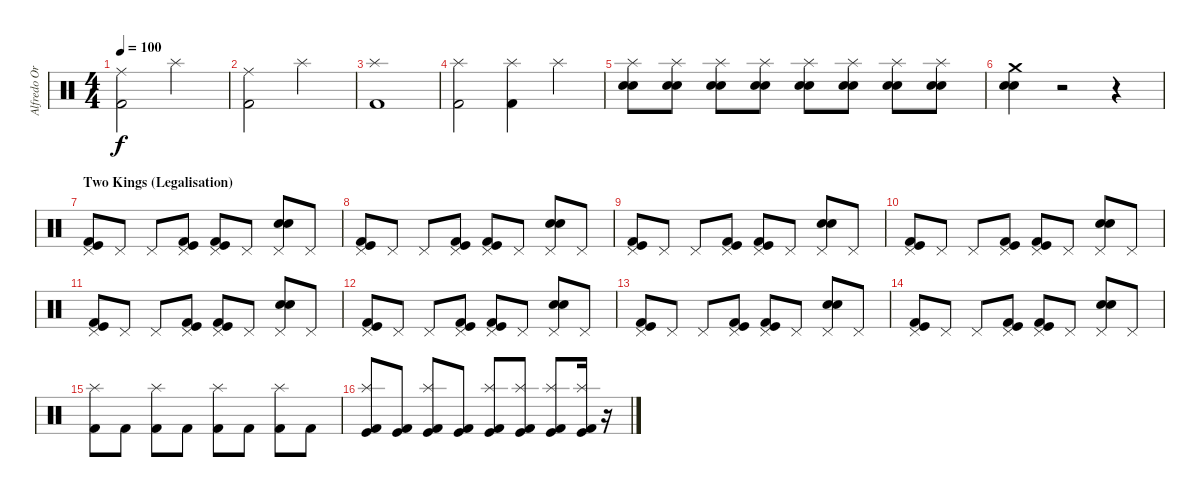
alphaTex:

\track ("Alfredo Ortiz (Drums)" "Alfredo Or") {instrument percussion}
\staff {score}
\articulation defaults
\ts (4 4)
\tempo 100
\clef neutral
\ks c
("Ride (middle)" "Kick (hit) 2").2{dy f} "Splash (hit)".2 |
("Ride (middle)" "Kick (hit) 2").2 "Splash (hit)".2 |
("Kick (hit) 2" "Splash (hit)").1 |
("Kick (hit) 2" "Splash (hit)").2 ("Splash (hit)" "Kick (hit) 2").4 "Splash (hit)".4{volume 5} |
("Snare (hit) 2" "Electric Snare (hit)" "Splash (hit)").8{volume 11} ("Snare (hit) 2" "Electric Snare (hit)" "Splash (hit)").8 ("Snare (hit) 2" "Electric Snare (hit)" "Splash (hit)").8 ("Snare (hit) 2" "Electric Snare (hit)" "Splash (hit)").8 ("Snare (hit) 2" "Electric Snare (hit)" "Splash (hit)").8 ("Snare (hit) 2" "Electric Snare (hit)" "Splash (hit)").8 ("Snare (hit) 2" "Electric Snare (hit)" "Splash (hit)").8 ("Snare (hit) 2" "Electric Snare (hit)" "Splash (hit)").8 |
("Snare (hit) 2" "Electric Snare (hit)" "Crash medium (hit)").4 r.2 r.4 |
\section ("" "Two Kings (Legalisation)")
("Kick (hit) 2" "Kick (hit)" "Pedal Hi-Hat (hit)").8 "Pedal Hi-Hat (hit)".8 "Pedal Hi-Hat (hit)".8 ("Kick (hit) 2" "Kick (hit)" "Pedal Hi-Hat (hit)").8 ("Kick (hit) 2" "Kick (hit)" "Pedal Hi-Hat (hit)").8 "Pedal Hi-Hat (hit)".8 ("Snare (hit) 2" "Electric Snare (hit)" "Pedal Hi-Hat (hit)").8 "Pedal Hi-Hat (hit)".8 |
("Kick (hit) 2" "Kick (hit)" "Pedal Hi-Hat (hit)").8 "Pedal Hi-Hat (hit)".8 "Pedal Hi-Hat (hit)".8 ("Kick (hit) 2" "Kick (hit)" "Pedal Hi-Hat (hit)").8 ("Kick (hit) 2" "Kick (hit)" "Pedal Hi-Hat (hit)").8 "Pedal Hi-Hat (hit)".8 ("Snare (hit) 2" "Electric Snare (hit)" "Pedal Hi-Hat (hit)").8 "Pedal Hi-Hat (hit)".8 |
("Kick (hit) 2" "Kick (hit)" "Pedal Hi-Hat (hit)").8 "Pedal Hi-Hat (hit)".8 "Pedal Hi-Hat (hit)".8 ("Kick (hit) 2" "Kick (hit)" "Pedal Hi-Hat (hit)").8 ("Kick (hit) 2" "Kick (hit)" "Pedal Hi-Hat (hit)").8 "Pedal Hi-Hat (hit)".8 ("Snare (hit) 2" "Electric Snare (hit)" "Pedal Hi-Hat (hit)").8 "Pedal Hi-Hat (hit)".8 |
("Kick (hit) 2" "Kick (hit)" "Pedal Hi-Hat (hit)").8 "Pedal Hi-Hat (hit)".8 "Pedal Hi-Hat (hit)".8 ("Kick (hit) 2" "Kick (hit)" "Pedal Hi-Hat (hit)").8 ("Kick (hit) 2" "Kick (hit)" "Pedal Hi-Hat (hit)").8 "Pedal Hi-Hat (hit)".8 ("Snare (hit) 2" "Electric Snare (hit)" "Pedal Hi-Hat (hit)").8 "Pedal Hi-Hat (hit)".8 |
("Kick (hit) 2" "Kick (hit)" "Pedal Hi-Hat (hit)").8 "Pedal Hi-Hat (hit)".8 "Pedal Hi-Hat (hit)".8 ("Kick (hit) 2" "Kick (hit)" "Pedal Hi-Hat (hit)").8 ("Kick (hit) 2" "Kick (hit)" "Pedal Hi-Hat (hit)").8 "Pedal Hi-Hat (hit)".8 ("Snare (hit) 2" "Electric Snare (hit)" "Pedal Hi-Hat (hit)").8 "Pedal Hi-Hat (hit)".8 |
("Kick (hit) 2" "Kick (hit)" "Pedal Hi-Hat (hit)").8 "Pedal Hi-Hat (hit)".8 "Pedal Hi-Hat (hit)".8 ("Kick (hit) 2" "Kick (hit)" "Pedal Hi-Hat (hit)").8 ("Kick (hit) 2" "Kick (hit)" "Pedal Hi-Hat (hit)").8 "Pedal Hi-Hat (hit)".8 ("Snare (hit) 2" "Electric Snare (hit)" "Pedal Hi-Hat (hit)").8 "Pedal Hi-Hat (hit)".8 |
("Kick (hit) 2" "Kick (hit)" "Pedal Hi-Hat (hit)").8 "Pedal Hi-Hat (hit)".8 "Pedal Hi-Hat (hit)".8 ("Kick (hit) 2" "Kick (hit)" "Pedal Hi-Hat (hit)").8 ("Kick (hit) 2" "Kick (hit)" "Pedal Hi-Hat (hit)").8 "Pedal Hi-Hat (hit)".8 ("Snare (hit) 2" "Electric Snare (hit)" "Pedal Hi-Hat (hit)").8 "Pedal Hi-Hat (hit)".8 |
("Kick (hit) 2" "Kick (hit)" "Pedal Hi-Hat (hit)").8 "Pedal Hi-Hat (hit)".8 "Pedal Hi-Hat (hit)".8 ("Kick (hit) 2" "Kick (hit)" "Pedal Hi-Hat (hit)").8 ("Kick (hit) 2" "Kick (hit)" "Pedal Hi-Hat (hit)").8 "Pedal Hi-Hat (hit)".8 ("Snare (hit) 2" "Electric Snare (hit)" "Pedal Hi-Hat (hit)").8 "Pedal Hi-Hat (hit)".8 |
("Kick (hit) 2" "Splash (hit)").8 "Kick (hit) 2".8 ("Kick (hit) 2" "Splash (hit)").8 "Kick (hit) 2".8 ("Kick (hit) 2" "Splash (hit)").8 "Kick (hit) 2".8 ("Kick (hit) 2" "Splash (hit)").8 "Kick (hit) 2".8 |
("Kick (hit) 2" "Kick (hit)" "Splash (hit)").8 ("Kick (hit) 2" "Kick (hit)").8 ("Kick (hit) 2" "Kick (hit)" "Splash (hit)").8 ("Kick (hit) 2" "Kick (hit)").8 ("Kick (hit) 2" "Kick (hit)" "Splash (hit)").8 ("Kick (hit) 2" "Kick (hit)" "Splash (hit)").8 ("Kick (hit) 2" "Kick (hit)" "Splash (hit)").8 ("Kick (hit) 2" "Kick (hit)" "Splash (hit)").16 r.16{volume 8}
